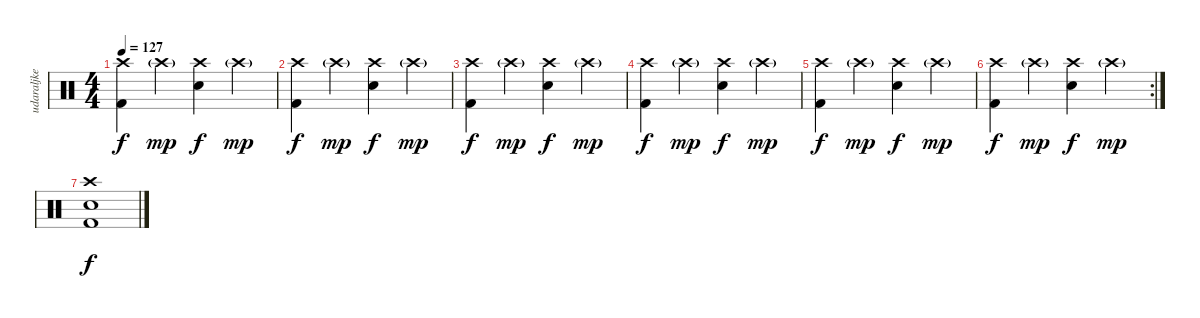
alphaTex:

\track ("udaraljke" "udaraljke") {instrument percussion}
\staff {score}
\articulation defaults
\ts (4 4)
\tempo 127
\clef neutral
\ks c
("Crash high (hit)" "Kick (hit) 2").4{dy f} "Crash high (hit)"{g}.4{dy mp} ("Crash high (hit)" "Electric Snare (hit)").4{dy f} "Crash high (hit)"{g}.4{dy mp} |
("Crash high (hit)" "Kick (hit) 2").4{dy f} "Crash high (hit)"{g}.4{dy mp} ("Crash high (hit)" "Electric Snare (hit)").4{dy f} "Crash high (hit)"{g}.4{dy mp} |
("Crash high (hit)" "Kick (hit) 2").4{dy f} "Crash high (hit)"{g}.4{dy mp} ("Crash high (hit)" "Electric Snare (hit)").4{dy f} "Crash high (hit)"{g}.4{dy mp} |
("Crash high (hit)" "Kick (hit) 2").4{dy f} "Crash high (hit)"{g}.4{dy mp} ("Crash high (hit)" "Electric Snare (hit)").4{dy f} "Crash high (hit)"{g}.4{dy mp} |
("Crash high (hit)" "Kick (hit) 2").4{dy f} "Crash high (hit)"{g}.4{dy mp} ("Crash high (hit)" "Electric Snare (hit)").4{dy f} "Crash high (hit)"{g}.4{dy mp} |
\rc 2
("Crash high (hit)" "Kick (hit) 2").4{dy f} "Crash high (hit)"{g}.4{dy mp} ("Crash high (hit)" "Electric Snare (hit)").4{dy f} "Crash high (hit)"{g}.4{dy mp} |
("Crash high (hit)" "Electric Snare (hit)" "Kick (hit) 2").1{dy f}
